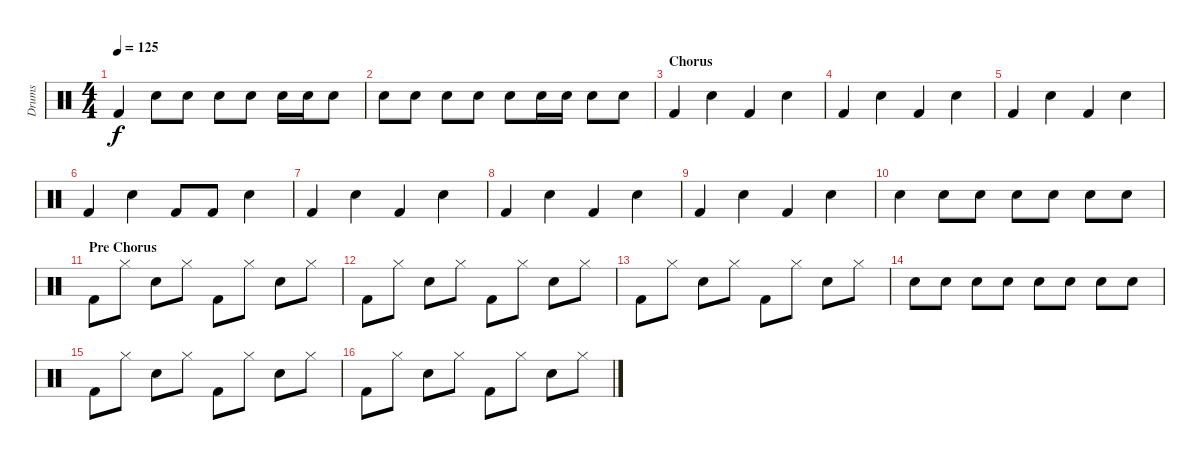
\track ("Drums" "Drums") {instrument percussion}
\staff {score}
\articulation defaults
\ts (4 4)
\tempo 125
\clef neutral
\ks c "Kick (hit) 2".4{dy f} "Snare (hit) 2".8 "Snare (hit) 2".8 "Snare (hit) 2".8 "Snare (hit) 2".8 "Snare (hit) 2".16 "Snare (hit) 2".16 "Snare (hit) 2".8
|
"Snare (hit) 2".8 "Snare (hit) 2".8 "Snare (hit) 2".8 "Snare (hit) 2".8 "Snare (hit) 2".8 "Snare (hit) 2".16 "Snare (hit) 2".16 "Snare (hit) 2".8 "Snare (hit) 2".8 |
\section ("" "Chorus")
"Kick (hit) 2".4 "Snare (hit) 2".4 "Kick (hit) 2".4 "Snare (hit) 2".4 |
"Kick (hit) 2".4 "Snare (hit) 2".4 "Kick (hit) 2".4 "Snare (hit) 2".4 |
"Kick (hit) 2".4 "Snare (hit) 2".4 "Kick (hit) 2".4 "Snare (hit) 2".4 |
"Kick (hit) 2".4 "Snare (hit) 2".4 "Kick (hit) 2".8 "Kick (hit) 2".8 "Snare (hit) 2".4 |
"Kick (hit) 2".4 "Snare (hit) 2".4 "Kick (hit) 2".4 "Snare (hit) 2".4 |
"Kick (hit) 2".4 "Snare (hit) 2".4 "Kick (hit) 2".4 "Snare (hit) 2".4 |
"Kick (hit) 2".4 "Snare (hit) 2".4 "Kick (hit) 2".4 "Snare (hit) 2".4 |
"Snare (hit) 2".4 "Snare (hit) 2".8 "Snare (hit) 2".8 "Snare (hit) 2".8 "Snare (hit) 2".8 "Snare (hit) 2".8 "Snare (hit) 2".8 |
\section ("" "Pre Chorus")
"Kick (hit) 2".8 "Hi-Hat (closed)".8 "Snare (hit) 2".8 "Hi-Hat (closed)".8 "Kick (hit) 2".8 "Hi-Hat (closed)".8 "Snare (hit) 2".8 "Hi-Hat (closed)".8 |
"Kick (hit) 2".8 "Hi-Hat (closed)".8 "Snare (hit) 2".8 "Hi-Hat (closed)".8 "Kick (hit) 2".8 "Hi-Hat (closed)".8 "Snare (hit) 2".8 "Hi-Hat (closed)".8 |
"Kick (hit) 2".8 "Hi-Hat (closed)".8 "Snare (hit) 2".8 "Hi-Hat (closed)".8 "Kick (hit) 2".8 "Hi-Hat (closed)".8 "Snare (hit) 2".8 "Hi-Hat (closed)".8 |
"Snare (hit) 2".8 "Snare (hit) 2".8 "Snare (hit) 2".8 "Snare (hit) 2".8 "Snare (hit) 2".8 "Snare (hit) 2".8 "Snare (hit) 2".8 "Snare (hit) 2".8 |
"Kick (hit) 2".8 "Hi-Hat (closed)".8 "Snare (hit) 2".8 "Hi-Hat (closed)".8 "Kick (hit) 2".8 "Hi-Hat (closed)".8 "Snare (hit) 2".8 "Hi-Hat (closed)".8 |
"Kick (hit) 2".8 "Hi-Hat (closed)".8 "Snare (hit) 2".8 "Hi-Hat (closed)".8 "Kick (hit) 2".8 "Hi-Hat (closed)".8 "Snare (hit) 2".8 "Hi-Hat (closed)".8
